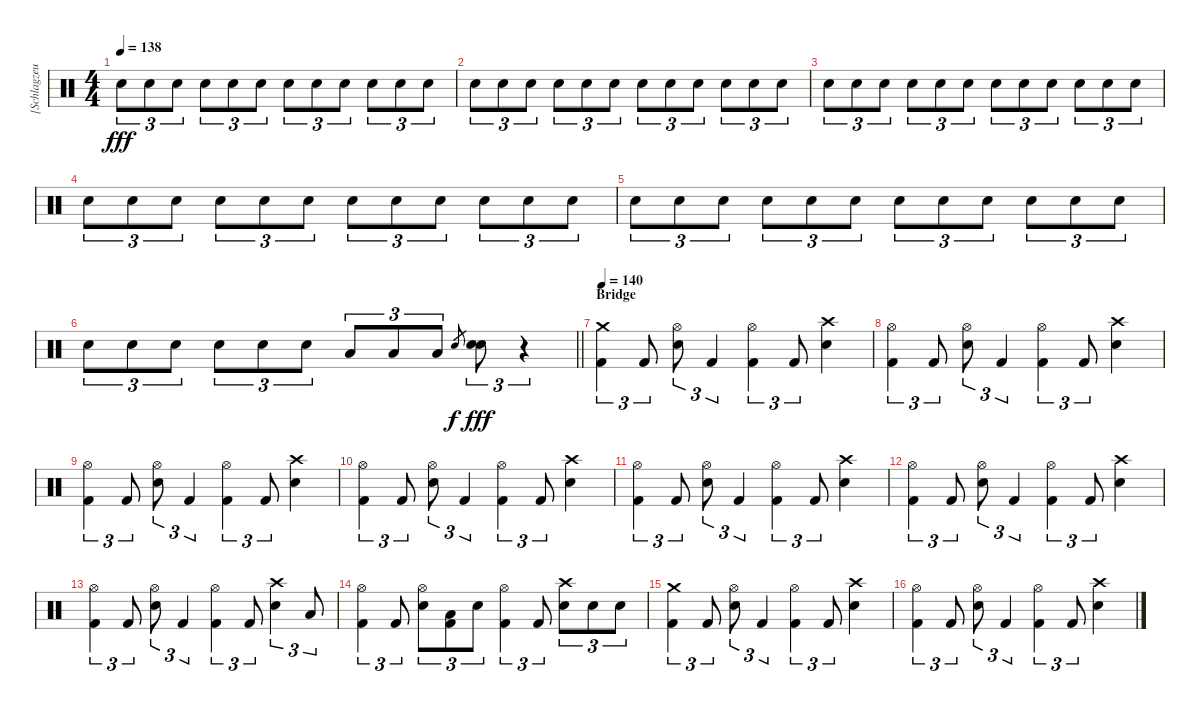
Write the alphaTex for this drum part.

\track ("[Schlagzeug]" "[Schlagzeu") {instrument percussion}
\staff {score}
\articulation defaults
\ts (4 4)
\tempo 138
\clef neutral
\ks c "Electric Snare (hit)".8{tu (3 2) dy fff volume 14} "Electric Snare (hit)".8{tu (3 2)} "Electric Snare (hit)".8{tu (3 2)} "Electric Snare (hit)".8{tu (3 2)} "Electric Snare (hit)".8{tu (3 2)} "Electric Snare (hit)".8{tu (3 2)} "Electric Snare (hit)".8{tu (3 2)} "Electric Snare (hit)".8{tu (3 2)} "Electric Snare (hit)".8{tu (3 2)} "Electric Snare (hit)".8{tu (3 2)} "Electric Snare (hit)".8{tu (3 2)} "Electric Snare (hit)".8{tu (3 2)}
|
"Electric Snare (hit)".8{tu (3 2)} "Electric Snare (hit)".8{tu (3 2)} "Electric Snare (hit)".8{tu (3 2)} "Electric Snare (hit)".8{tu (3 2)} "Electric Snare (hit)".8{tu (3 2)} "Electric Snare (hit)".8{tu (3 2)} "Electric Snare (hit)".8{tu (3 2)} "Electric Snare (hit)".8{tu (3 2)} "Electric Snare (hit)".8{tu (3 2)} "Electric Snare (hit)".8{tu (3 2)} "Electric Snare (hit)".8{tu (3 2)} "Electric Snare (hit)".8{tu (3 2)} |
"Electric Snare (hit)".8{tu (3 2) volume 15} "Electric Snare (hit)".8{tu (3 2)} "Electric Snare (hit)".8{tu (3 2)} "Electric Snare (hit)".8{tu (3 2)} "Electric Snare (hit)".8{tu (3 2)} "Electric Snare (hit)".8{tu (3 2)} "Electric Snare (hit)".8{tu (3 2)} "Electric Snare (hit)".8{tu (3 2)} "Electric Snare (hit)".8{tu (3 2)} "Electric Snare (hit)".8{tu (3 2)} "Electric Snare (hit)".8{tu (3 2)} "Electric Snare (hit)".8{tu (3 2)} |
"Electric Snare (hit)".8{tu (3 2)} "Electric Snare (hit)".8{tu (3 2)} "Electric Snare (hit)".8{tu (3 2)} "Electric Snare (hit)".8{tu (3 2)} "Electric Snare (hit)".8{tu (3 2)} "Electric Snare (hit)".8{tu (3 2)} "Electric Snare (hit)".8{tu (3 2)} "Electric Snare (hit)".8{tu (3 2)} "Electric Snare (hit)".8{tu (3 2)} "Electric Snare (hit)".8{tu (3 2)} "Electric Snare (hit)".8{tu (3 2)} "Electric Snare (hit)".8{tu (3 2)} |
"Electric Snare (hit)".8{tu (3 2) volume 16} "Electric Snare (hit)".8{tu (3 2)} "Electric Snare (hit)".8{tu (3 2)} "Electric Snare (hit)".8{tu (3 2)} "Electric Snare (hit)".8{tu (3 2)} "Electric Snare (hit)".8{tu (3 2)} "Electric Snare (hit)".8{tu (3 2)} "Electric Snare (hit)".8{tu (3 2)} "Electric Snare (hit)".8{tu (3 2)} "Electric Snare (hit)".8{tu (3 2)} "Electric Snare (hit)".8{tu (3 2)} "Electric Snare (hit)".8{tu (3 2)} |
\barLineRight lightlight "Electric Snare (hit)".8{tu (3 2)} "Electric Snare (hit)".8{tu (3 2)} "Electric Snare (hit)".8{tu (3 2)} "Electric Snare (hit)".8{tu (3 2)} "Electric Snare (hit)".8{tu (3 2)} "Electric Snare (hit)".8{tu (3 2)} "Low Tom (hit)".8{tu (3 2)} "Low Tom (hit)".8{tu (3 2)} "Low Floor Tom (hit)".8{tu (3 2)} "Electric Snare (hit)".8{gr dy f}
("Electric Snare (hit)" "Electric Snare (hit)").8{tu (3 2) dy fff} r.4{tu (3 2)} |
\section ("" "Bridge")
\tempo 140
("Crash medium (hit)" "Kick (hit) 2").4{tu (3 2)} "Kick (hit) 2".8{tu (3 2)} ("Hi-Hat (open)" "Electric Snare (hit)").8{tu (3 2)} "Kick (hit) 2".4{tu (3 2)} ("Hi-Hat (open)" "Kick (hit) 2").4{tu (3 2)} "Kick (hit) 2".8{tu (3 2)} ("Crash high (hit)" "Electric Snare (hit)").4 |
("Hi-Hat (open)" "Kick (hit) 2").4{tu (3 2)} "Kick (hit) 2".8{tu (3 2)} ("Hi-Hat (open)" "Electric Snare (hit)").8{tu (3 2)} "Kick (hit) 2".4{tu (3 2)} ("Hi-Hat (open)" "Kick (hit) 2").4{tu (3 2)} "Kick (hit) 2".8{tu (3 2)} ("Crash high (hit)" "Electric Snare (hit)").4 |
("Hi-Hat (open)" "Kick (hit) 2").4{tu (3 2)} "Kick (hit) 2".8{tu (3 2)} ("Hi-Hat (open)" "Electric Snare (hit)").8{tu (3 2)} "Kick (hit) 2".4{tu (3 2)} ("Hi-Hat (open)" "Kick (hit) 2").4{tu (3 2)} "Kick (hit) 2".8{tu (3 2)} ("Crash high (hit)" "Electric Snare (hit)").4 |
("Hi-Hat (open)" "Kick (hit) 2").4{tu (3 2)} "Kick (hit) 2".8{tu (3 2)} ("Hi-Hat (open)" "Electric Snare (hit)").8{tu (3 2)} "Kick (hit) 2".4{tu (3 2)} ("Hi-Hat (open)" "Kick (hit) 2").4{tu (3 2)} "Kick (hit) 2".8{tu (3 2)} ("Crash high (hit)" "Electric Snare (hit)").4 |
("Hi-Hat (open)" "Kick (hit) 2").4{tu (3 2)} "Kick (hit) 2".8{tu (3 2)} ("Hi-Hat (open)" "Electric Snare (hit)").8{tu (3 2)} "Kick (hit) 2".4{tu (3 2)} ("Hi-Hat (open)" "Kick (hit) 2").4{tu (3 2)} "Kick (hit) 2".8{tu (3 2)} ("Crash high (hit)" "Electric Snare (hit)").4 |
("Hi-Hat (open)" "Kick (hit) 2").4{tu (3 2)} "Kick (hit) 2".8{tu (3 2)} ("Hi-Hat (open)" "Electric Snare (hit)").8{tu (3 2)} "Kick (hit) 2".4{tu (3 2)} ("Hi-Hat (open)" "Kick (hit) 2").4{tu (3 2)} "Kick (hit) 2".8{tu (3 2)} ("Crash high (hit)" "Electric Snare (hit)").4 |
("Hi-Hat (open)" "Kick (hit) 2").4{tu (3 2)} "Kick (hit) 2".8{tu (3 2)} ("Hi-Hat (open)" "Electric Snare (hit)").8{tu (3 2)} "Kick (hit) 2".4{tu (3 2)} ("Hi-Hat (open)" "Kick (hit) 2").4{tu (3 2)} "Kick (hit) 2".8{tu (3 2)} ("Crash high (hit)" "Electric Snare (hit)").4{tu (3 2)} "Low Floor Tom (hit)".8{tu (3 2)} |
("Hi-Hat (open)" "Kick (hit) 2").4{tu (3 2)} "Kick (hit) 2".8{tu (3 2)} ("Hi-Hat (open)" "Electric Snare (hit)").8{tu (3 2)} ("Low Floor Tom (hit)" "Kick (hit) 2").8{tu (3 2)} "Electric Snare (hit)".8{tu (3 2)} ("Hi-Hat (open)" "Kick (hit) 2").4{tu (3 2)} "Kick (hit) 2".8{tu (3 2)} ("Crash high (hit)" "Electric Snare (hit)").8{tu (3 2)} "Electric Snare (hit)".8{tu (3 2)} "Electric Snare (hit)".8{tu (3 2)} |
("Crash medium (hit)" "Kick (hit) 2").4{tu (3 2)} "Kick (hit) 2".8{tu (3 2)} ("Hi-Hat (open)" "Electric Snare (hit)").8{tu (3 2)} "Kick (hit) 2".4{tu (3 2)} ("Hi-Hat (open)" "Kick (hit) 2").4{tu (3 2)} "Kick (hit) 2".8{tu (3 2)} ("Crash high (hit)" "Electric Snare (hit)").4 |
("Hi-Hat (open)" "Kick (hit) 2").4{tu (3 2)} "Kick (hit) 2".8{tu (3 2)} ("Hi-Hat (open)" "Electric Snare (hit)").8{tu (3 2)} "Kick (hit) 2".4{tu (3 2)} ("Hi-Hat (open)" "Kick (hit) 2").4{tu (3 2)} "Kick (hit) 2".8{tu (3 2)} ("Crash high (hit)" "Electric Snare (hit)").4
